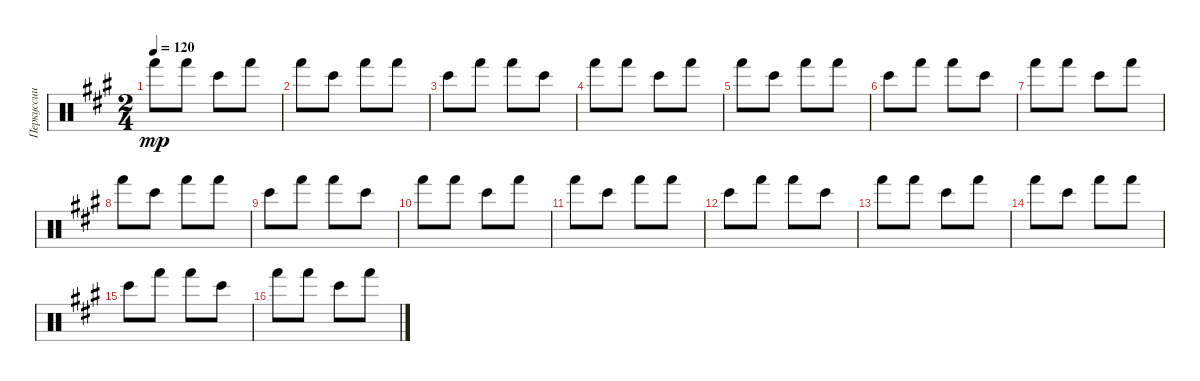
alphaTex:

\track ("Перкуссии" "Перкуссии") {instrument percussion}
\staff {score}
\articulation defaults
\ts (2 4)
\tempo 120
\clef neutral
\ks f#minor "Hand (hit)".8{dy mp} "Hand (hit)".8 "Bongo High (hit)".8 "Hand (hit)".8
|
"Hand (hit)".8 "Bongo High (hit)".8 "Hand (hit)".8 "Hand (hit)".8 |
"Bongo High (hit)".8 "Hand (hit)".8 "Hand (hit)".8 "Bongo High (hit)".8 |
"Hand (hit)".8 "Hand (hit)".8 "Bongo High (hit)".8 "Hand (hit)".8 |
"Hand (hit)".8 "Bongo High (hit)".8 "Hand (hit)".8 "Hand (hit)".8 |
"Bongo High (hit)".8 "Hand (hit)".8 "Hand (hit)".8 "Bongo High (hit)".8 |
"Hand (hit)".8 "Hand (hit)".8 "Bongo High (hit)".8 "Hand (hit)".8 |
"Hand (hit)".8 "Bongo High (hit)".8 "Hand (hit)".8 "Hand (hit)".8 |
"Bongo High (hit)".8 "Hand (hit)".8 "Hand (hit)".8 "Bongo High (hit)".8 |
"Hand (hit)".8 "Hand (hit)".8 "Bongo High (hit)".8 "Hand (hit)".8 |
"Hand (hit)".8 "Bongo High (hit)".8 "Hand (hit)".8 "Hand (hit)".8 |
"Bongo High (hit)".8 "Hand (hit)".8 "Hand (hit)".8 "Bongo High (hit)".8 |
"Hand (hit)".8 "Hand (hit)".8 "Bongo High (hit)".8 "Hand (hit)".8 |
"Hand (hit)".8 "Bongo High (hit)".8 "Hand (hit)".8 "Hand (hit)".8 |
"Bongo High (hit)".8 "Hand (hit)".8 "Hand (hit)".8 "Bongo High (hit)".8 |
"Hand (hit)".8 "Hand (hit)".8 "Bongo High (hit)".8 "Hand (hit)".8
